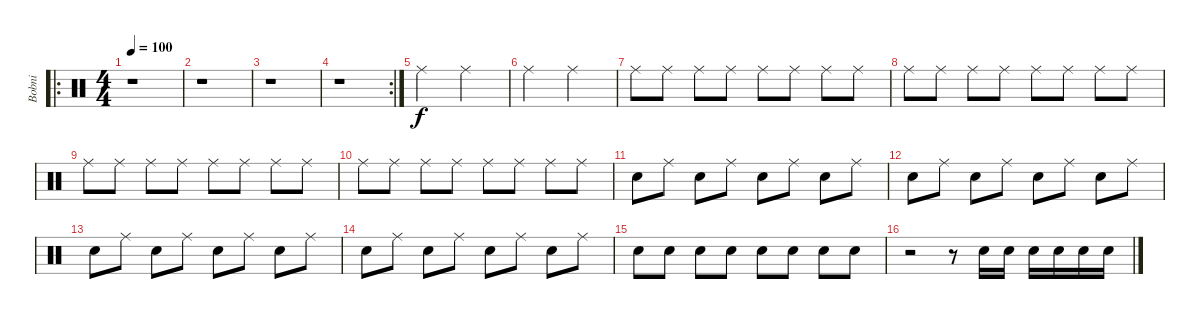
\track ("Bobni" "Bobni") {instrument percussion}
\staff {score}
\articulation defaults
\ro
\ts (4 4)
\tempo 100
\clef neutral
\ks c
r.1{dy f} |
r.1 |
r.1 |
\rc 2
r.1 |
"Ride (middle)".2 "Ride (middle)".2 |
"Ride (middle)".2 "Ride (middle)".2 |
"Ride (middle)".8 "Ride (middle)".8 "Ride (middle)".8 "Ride (middle)".8 "Ride (middle)".8 "Ride (middle)".8 "Ride (middle)".8 "Ride (middle)".8 |
"Ride (middle)".8 "Ride (middle)".8 "Ride (middle)".8 "Ride (middle)".8 "Ride (middle)".8 "Ride (middle)".8 "Ride (middle)".8 "Ride (middle)".8 |
"Ride (middle)".8 "Ride (middle)".8 "Ride (middle)".8 "Ride (middle)".8 "Ride (middle)".8 "Ride (middle)".8 "Ride (middle)".8 "Ride (middle)".8 |
"Ride (middle)".8 "Ride (middle)".8 "Ride (middle)".8 "Ride (middle)".8 "Ride (middle)".8 "Ride (middle)".8 "Ride (middle)".8 "Ride (middle)".8 |
"Snare (hit) 2".8 "Ride (middle)".8 "Snare (hit) 2".8 "Ride (middle)".8 "Snare (hit) 2".8 "Ride (middle)".8 "Snare (hit) 2".8 "Ride (middle)".8 |
"Snare (hit) 2".8 "Ride (middle)".8 "Snare (hit) 2".8 "Ride (middle)".8 "Snare (hit) 2".8 "Ride (middle)".8 "Snare (hit) 2".8 "Ride (middle)".8 |
"Snare (hit) 2".8 "Ride (middle)".8 "Snare (hit) 2".8 "Ride (middle)".8 "Snare (hit) 2".8 "Ride (middle)".8 "Snare (hit) 2".8 "Ride (middle)".8 |
"Snare (hit) 2".8 "Ride (middle)".8 "Snare (hit) 2".8 "Ride (middle)".8 "Snare (hit) 2".8 "Ride (middle)".8 "Snare (hit) 2".8 "Ride (middle)".8 |
"Snare (hit) 2".8 "Snare (hit) 2".8 "Snare (hit) 2".8 "Snare (hit) 2".8 "Snare (hit) 2".8 "Snare (hit) 2".8 "Snare (hit) 2".8 "Snare (hit) 2".8 |
r.2 r.8 "Snare (hit) 2".16 "Snare (hit) 2".16 "Snare (hit) 2".16 "Snare (hit) 2".16 "Snare (hit) 2".16 "Snare (hit) 2".16
